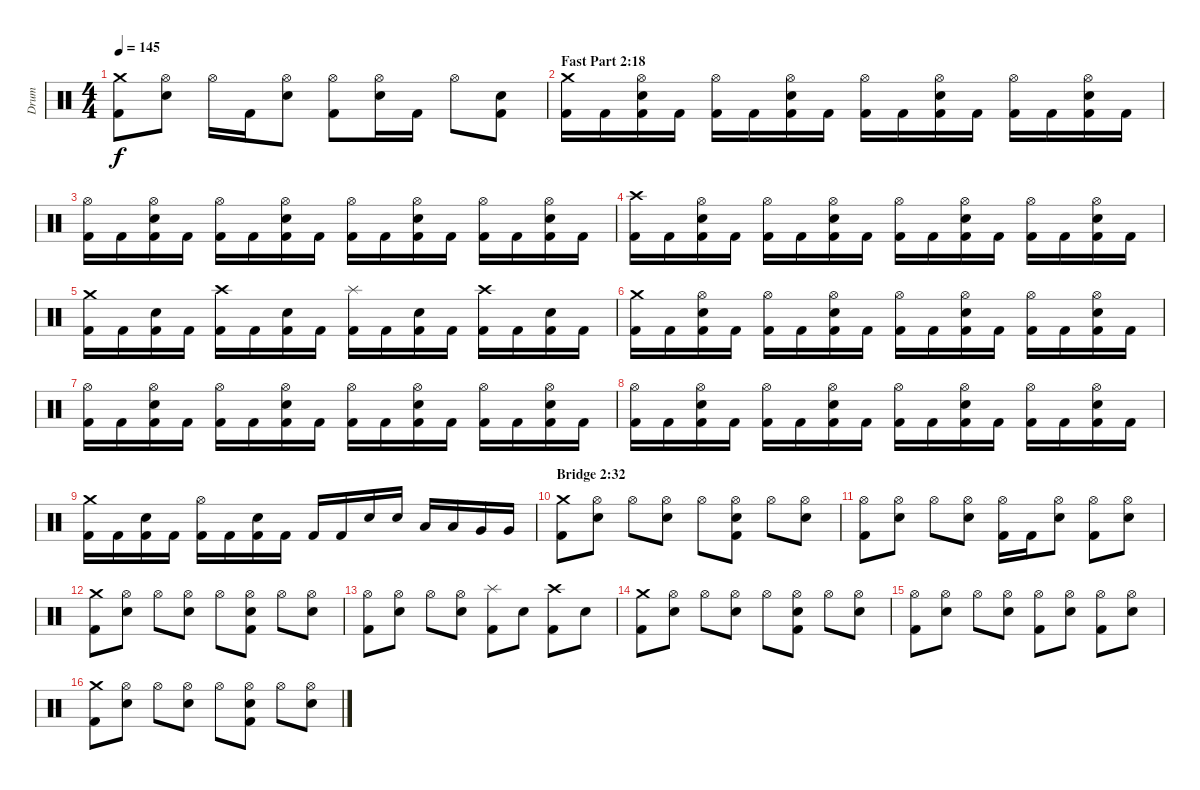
\track ("Drum" "Drum") {instrument percussion}
\staff {score}
\articulation defaults
\ts (4 4)
\tempo 145
\clef neutral
\ks c
("Crash medium (hit)" "Kick (hit) 2").8{dy f} ("Hi-Hat (open)" "Snare (hit) 2").8 "Hi-Hat (open)".16 "Kick (hit) 2".16 ("Hi-Hat (open)" "Snare (hit) 2").8 ("Hi-Hat (open)" "Kick (hit) 2").8 ("Hi-Hat (open)" "Snare (hit) 2").16 "Kick (hit) 2".16 "Hi-Hat (open)".8 ("Snare (hit) 2" "Kick (hit) 2").8 |
\section ("" "Fast Part 2:18")
("Crash medium (hit)" "Kick (hit) 2").16 "Kick (hit) 2".16 ("Hi-Hat (open)" "Snare (hit) 2" "Kick (hit) 2").16 "Kick (hit) 2".16 ("Hi-Hat (open)" "Kick (hit) 2").16 "Kick (hit) 2".16 ("Hi-Hat (open)" "Snare (hit) 2" "Kick (hit) 2").16 "Kick (hit) 2".16 ("Hi-Hat (open)" "Kick (hit) 2").16 "Kick (hit) 2".16 ("Hi-Hat (open)" "Snare (hit) 2" "Kick (hit) 2").16 "Kick (hit) 2".16 ("Hi-Hat (open)" "Kick (hit) 2").16 "Kick (hit) 2".16 ("Hi-Hat (open)" "Snare (hit) 2" "Kick (hit) 2").16 "Kick (hit) 2".16 |
("Hi-Hat (open)" "Kick (hit) 2").16 "Kick (hit) 2".16 ("Hi-Hat (open)" "Snare (hit) 2" "Kick (hit) 2").16 "Kick (hit) 2".16 ("Hi-Hat (open)" "Kick (hit) 2").16 "Kick (hit) 2".16 ("Hi-Hat (open)" "Snare (hit) 2" "Kick (hit) 2").16 "Kick (hit) 2".16 ("Hi-Hat (open)" "Kick (hit) 2").16 "Kick (hit) 2".16 ("Hi-Hat (open)" "Snare (hit) 2" "Kick (hit) 2").16 "Kick (hit) 2".16 ("Hi-Hat (open)" "Kick (hit) 2").16 "Kick (hit) 2".16 ("Hi-Hat (open)" "Snare (hit) 2" "Kick (hit) 2").16 "Kick (hit) 2".16 |
("Crash high (hit)" "Kick (hit) 2").16 "Kick (hit) 2".16 ("Hi-Hat (open)" "Snare (hit) 2" "Kick (hit) 2").16 "Kick (hit) 2".16 ("Hi-Hat (open)" "Kick (hit) 2").16 "Kick (hit) 2".16 ("Hi-Hat (open)" "Snare (hit) 2" "Kick (hit) 2").16 "Kick (hit) 2".16 ("Hi-Hat (open)" "Kick (hit) 2").16 "Kick (hit) 2".16 ("Hi-Hat (open)" "Snare (hit) 2" "Kick (hit) 2").16 "Kick (hit) 2".16 ("Hi-Hat (open)" "Kick (hit) 2").16 "Kick (hit) 2".16 ("Hi-Hat (open)" "Snare (hit) 2" "Kick (hit) 2").16 "Kick (hit) 2".16 |
("Crash medium (hit)" "Kick (hit) 2").16 "Kick (hit) 2".16 ("Snare (hit) 2" "Kick (hit) 2").16 "Kick (hit) 2".16 ("Crash high (hit)" "Kick (hit) 2").16 "Kick (hit) 2".16 ("Snare (hit) 2" "Kick (hit) 2").16 "Kick (hit) 2".16 ("Splash (hit)" "Kick (hit) 2").16 "Kick (hit) 2".16 ("Snare (hit) 2" "Kick (hit) 2").16 "Kick (hit) 2".16 ("Crash high (hit)" "Kick (hit) 2").16 "Kick (hit) 2".16 ("Snare (hit) 2" "Kick (hit) 2").16 "Kick (hit) 2".16 |
("Crash medium (hit)" "Kick (hit) 2").16 "Kick (hit) 2".16 ("Hi-Hat (open)" "Snare (hit) 2" "Kick (hit) 2").16 "Kick (hit) 2".16 ("Hi-Hat (open)" "Kick (hit) 2").16 "Kick (hit) 2".16 ("Hi-Hat (open)" "Snare (hit) 2" "Kick (hit) 2").16 "Kick (hit) 2".16 ("Hi-Hat (open)" "Kick (hit) 2").16 "Kick (hit) 2".16 ("Hi-Hat (open)" "Snare (hit) 2" "Kick (hit) 2").16 "Kick (hit) 2".16 ("Hi-Hat (open)" "Kick (hit) 2").16 "Kick (hit) 2".16 ("Hi-Hat (open)" "Snare (hit) 2" "Kick (hit) 2").16 "Kick (hit) 2".16 |
("Hi-Hat (open)" "Kick (hit) 2").16 "Kick (hit) 2".16 ("Hi-Hat (open)" "Snare (hit) 2" "Kick (hit) 2").16 "Kick (hit) 2".16 ("Hi-Hat (open)" "Kick (hit) 2").16 "Kick (hit) 2".16 ("Hi-Hat (open)" "Snare (hit) 2" "Kick (hit) 2").16 "Kick (hit) 2".16 ("Hi-Hat (open)" "Kick (hit) 2").16 "Kick (hit) 2".16 ("Hi-Hat (open)" "Snare (hit) 2" "Kick (hit) 2").16 "Kick (hit) 2".16 ("Hi-Hat (open)" "Kick (hit) 2").16 "Kick (hit) 2".16 ("Hi-Hat (open)" "Snare (hit) 2" "Kick (hit) 2").16 "Kick (hit) 2".16 |
("Hi-Hat (open)" "Kick (hit) 2").16 "Kick (hit) 2".16 ("Hi-Hat (open)" "Snare (hit) 2" "Kick (hit) 2").16 "Kick (hit) 2".16 ("Hi-Hat (open)" "Kick (hit) 2").16 "Kick (hit) 2".16 ("Hi-Hat (open)" "Snare (hit) 2" "Kick (hit) 2").16 "Kick (hit) 2".16 ("Hi-Hat (open)" "Kick (hit) 2").16 "Kick (hit) 2".16 ("Hi-Hat (open)" "Snare (hit) 2" "Kick (hit) 2").16 "Kick (hit) 2".16 ("Hi-Hat (open)" "Kick (hit) 2").16 "Kick (hit) 2".16 ("Hi-Hat (open)" "Snare (hit) 2" "Kick (hit) 2").16 "Kick (hit) 2".16 |
("Crash medium (hit)" "Kick (hit) 2").16 "Kick (hit) 2".16 ("Snare (hit) 2" "Kick (hit) 2").16 "Kick (hit) 2".16 ("Hi-Hat (open)" "Kick (hit) 2").16 "Kick (hit) 2".16 ("Snare (hit) 2" "Kick (hit) 2").16 "Kick (hit) 2".16 "Kick (hit) 2".16 "Kick (hit) 2".16 "Snare (hit) 2".16 "Snare (hit) 2".16 "Low Tom (hit)".16 "Low Tom (hit)".16 "Very Low Tom (hit)".16 "Very Low Tom (hit)".16 |
\section ("" "Bridge 2:32")
("Crash medium (hit)" "Kick (hit) 2").8 ("Hi-Hat (open)" "Snare (hit) 2").8 "Hi-Hat (open)".8 ("Hi-Hat (open)" "Snare (hit) 2").8 "Hi-Hat (open)".8 ("Hi-Hat (open)" "Snare (hit) 2" "Kick (hit) 2").8 "Hi-Hat (open)".8 ("Hi-Hat (open)" "Snare (hit) 2").8 |
("Hi-Hat (open)" "Kick (hit) 2").8 ("Hi-Hat (open)" "Snare (hit) 2").8 "Hi-Hat (open)".8 ("Hi-Hat (open)" "Snare (hit) 2").8 ("Hi-Hat (open)" "Kick (hit) 2").16 "Kick (hit) 2".16 ("Hi-Hat (open)" "Snare (hit) 2").8 ("Hi-Hat (open)" "Kick (hit) 2").8 ("Hi-Hat (open)" "Snare (hit) 2").8 |
("Crash medium (hit)" "Kick (hit) 2").8 ("Hi-Hat (open)" "Snare (hit) 2").8 "Hi-Hat (open)".8 ("Hi-Hat (open)" "Snare (hit) 2").8 "Hi-Hat (open)".8 ("Hi-Hat (open)" "Snare (hit) 2" "Kick (hit) 2").8 "Hi-Hat (open)".8 ("Hi-Hat (open)" "Snare (hit) 2").8 |
("Hi-Hat (open)" "Kick (hit) 2").8 ("Hi-Hat (open)" "Snare (hit) 2").8 "Hi-Hat (open)".8 ("Hi-Hat (open)" "Snare (hit) 2").8 ("Splash (hit)" "Kick (hit) 2").8 "Snare (hit) 2".8 ("Crash high (hit)" "Kick (hit) 2").8 "Snare (hit) 2".8 |
("Crash medium (hit)" "Kick (hit) 2").8 ("Hi-Hat (open)" "Snare (hit) 2").8 "Hi-Hat (open)".8 ("Hi-Hat (open)" "Snare (hit) 2").8 "Hi-Hat (open)".8 ("Hi-Hat (open)" "Snare (hit) 2" "Kick (hit) 2").8 "Hi-Hat (open)".8 ("Hi-Hat (open)" "Snare (hit) 2").8 |
("Hi-Hat (open)" "Kick (hit) 2").8 ("Hi-Hat (open)" "Snare (hit) 2").8 "Hi-Hat (open)".8 ("Hi-Hat (open)" "Snare (hit) 2").8 ("Hi-Hat (open)" "Kick (hit) 2").8 ("Hi-Hat (open)" "Snare (hit) 2").8 ("Hi-Hat (open)" "Kick (hit) 2").8 ("Hi-Hat (open)" "Snare (hit) 2").8 |
("Crash medium (hit)" "Kick (hit) 2").8 ("Hi-Hat (open)" "Snare (hit) 2").8 "Hi-Hat (open)".8 ("Hi-Hat (open)" "Snare (hit) 2").8 "Hi-Hat (open)".8 ("Hi-Hat (open)" "Snare (hit) 2" "Kick (hit) 2").8 "Hi-Hat (open)".8 ("Hi-Hat (open)" "Snare (hit) 2").8
